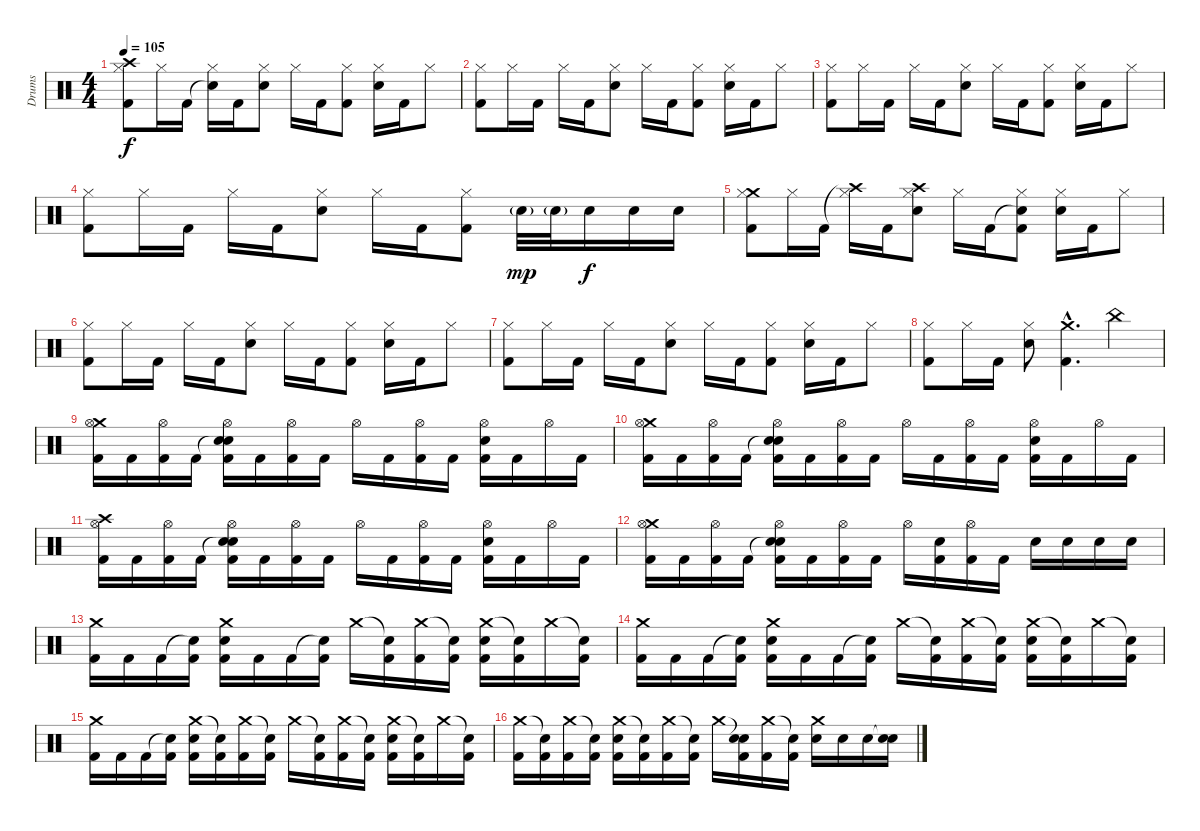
\track ("Drums" "Drums") {instrument percussion}
\staff {score}
\articulation defaults
\ts (4 4)
\tempo 105
\clef neutral
\ks c
("Crash high (hit)" "Hi-Hat (closed)" "Kick (hit) 2").8{dy f} "Hi-Hat (closed)".16 "Kick (hit) 2".16 ("Snare (hit)"{t} "Hi-Hat (closed)").16 "Kick (hit) 2".16 ("Hi-Hat (closed)" "Electric Snare (hit)").8 "Hi-Hat (closed)".16 "Kick (hit) 2".16 ("Hi-Hat (closed)" "Kick (hit) 2").8 ("Hi-Hat (closed)" "Electric Snare (hit)").16 "Kick (hit) 2".16 "Hi-Hat (closed)".8 |
("Hi-Hat (closed)" "Kick (hit) 2").8 "Hi-Hat (closed)".16 "Kick (hit) 2".16 "Hi-Hat (closed)".16 "Kick (hit) 2".16 ("Hi-Hat (closed)" "Electric Snare (hit)").8 "Hi-Hat (closed)".16 "Kick (hit) 2".16 ("Hi-Hat (closed)" "Kick (hit) 2").8 ("Hi-Hat (closed)" "Electric Snare (hit)").16 "Kick (hit) 2".16 "Hi-Hat (closed)".8 |
("Hi-Hat (closed)" "Kick (hit) 2").8 "Hi-Hat (closed)".16 "Kick (hit) 2".16 "Hi-Hat (closed)".16 "Kick (hit) 2".16 ("Hi-Hat (closed)" "Electric Snare (hit)").8 "Hi-Hat (closed)".16 "Kick (hit) 2".16 ("Hi-Hat (closed)" "Kick (hit) 2").8 ("Hi-Hat (closed)" "Electric Snare (hit)").16 "Kick (hit) 2".16 "Hi-Hat (closed)".8 |
("Hi-Hat (closed)" "Kick (hit) 2").8 "Hi-Hat (closed)".16 "Kick (hit) 2".16 "Hi-Hat (closed)".16 "Kick (hit) 2".16 ("Hi-Hat (closed)" "Electric Snare (hit)").8 "Hi-Hat (closed)".16 "Kick (hit) 2".16 ("Hi-Hat (closed)" "Kick (hit) 2").8 "Electric Snare (hit)"{g}.32{dy mp} "Electric Snare (hit)"{g}.32 "Electric Snare (hit)".16{dy f} "Electric Snare (hit)".16 "Electric Snare (hit)".16 |
("Crash medium (hit)" "Hi-Hat (closed)" "Kick (hit) 2").8 "Hi-Hat (closed)".16 "Kick (hit) 2".16 ("Crash high (hit)"{t} "Hi-Hat (closed)").16 "Kick (hit) 2".16 ("Crash high (hit)" "Hi-Hat (closed)" "Electric Snare (hit)").8 "Hi-Hat (closed)".16 "Kick (hit) 2".16 ("Snare (hit)"{t} "Hi-Hat (closed)" "Kick (hit) 2").8 ("Hi-Hat (closed)" "Electric Snare (hit)").16 "Kick (hit) 2".16 "Hi-Hat (closed)".8 |
("Hi-Hat (closed)" "Kick (hit) 2").8 "Hi-Hat (closed)".16 "Kick (hit) 2".16 "Hi-Hat (closed)".16 "Kick (hit) 2".16 ("Hi-Hat (closed)" "Electric Snare (hit)").8 "Hi-Hat (closed)".16 "Kick (hit) 2".16 ("Hi-Hat (closed)" "Kick (hit) 2").8 ("Hi-Hat (closed)" "Electric Snare (hit)").16 "Kick (hit) 2".16 "Hi-Hat (closed)".8 |
("Hi-Hat (closed)" "Kick (hit) 2").8 "Hi-Hat (closed)".16 "Kick (hit) 2".16 "Hi-Hat (closed)".16 "Kick (hit) 2".16 ("Hi-Hat (closed)" "Electric Snare (hit)").8 "Hi-Hat (closed)".16 "Kick (hit) 2".16 ("Hi-Hat (closed)" "Kick (hit) 2").8 ("Hi-Hat (closed)" "Electric Snare (hit)").16 "Kick (hit) 2".16 "Hi-Hat (closed)".8 |
("Hi-Hat (closed)" "Kick (hit) 2").8 "Hi-Hat (closed)".16 "Kick (hit) 2".16 ("Hi-Hat (closed)" "Electric Snare (hit)").8 ("Crash medium (hit)"{hac} "Kick (hit) 2"{hac}).4{d} "China (hit)".4 |
("Crash medium (hit)" "Hi-Hat (open)" "Kick (hit) 2").16 "Kick (hit) 2".16 ("Hi-Hat (open)" "Kick (hit) 2").16 "Kick (hit) 2".16 ("Snare (hit)"{t} "Hi-Hat (open)" "Electric Snare (hit)" "Kick (hit) 2").16 "Kick (hit) 2".16 ("Hi-Hat (open)" "Kick (hit) 2").16 "Kick (hit) 2".16 "Hi-Hat (open)".16 "Kick (hit) 2".16 ("Hi-Hat (open)" "Kick (hit) 2").16 "Kick (hit) 2".16 ("Hi-Hat (open)" "Electric Snare (hit)" "Kick (hit) 2").16 "Kick (hit) 2".16 "Hi-Hat (open)".16 "Kick (hit) 2".16 |
("Crash medium (hit)" "Hi-Hat (open)" "Kick (hit) 2").16 "Kick (hit) 2".16 ("Hi-Hat (open)" "Kick (hit) 2").16 "Kick (hit) 2".16 ("Snare (hit)"{t} "Hi-Hat (open)" "Electric Snare (hit)" "Kick (hit) 2").16 "Kick (hit) 2".16 ("Hi-Hat (open)" "Kick (hit) 2").16 "Kick (hit) 2".16 "Hi-Hat (open)".16 "Kick (hit) 2".16 ("Hi-Hat (open)" "Kick (hit) 2").16 "Kick (hit) 2".16 ("Hi-Hat (open)" "Electric Snare (hit)" "Kick (hit) 2").16 "Kick (hit) 2".16 "Hi-Hat (open)".16 "Kick (hit) 2".16 |
("Crash high (hit)" "Hi-Hat (open)" "Kick (hit) 2").16 "Kick (hit) 2".16 ("Hi-Hat (open)" "Kick (hit) 2").16 "Kick (hit) 2".16 ("Snare (hit)"{t} "Hi-Hat (open)" "Electric Snare (hit)" "Kick (hit) 2").16 "Kick (hit) 2".16 ("Hi-Hat (open)" "Kick (hit) 2").16 "Kick (hit) 2".16 "Hi-Hat (open)".16 "Kick (hit) 2".16 ("Hi-Hat (open)" "Kick (hit) 2").16 "Kick (hit) 2".16 ("Hi-Hat (open)" "Electric Snare (hit)" "Kick (hit) 2").16 "Kick (hit) 2".16 "Hi-Hat (open)".16 "Kick (hit) 2".16 |
("Crash medium (hit)" "Hi-Hat (open)" "Kick (hit) 2").16 "Kick (hit) 2".16 ("Hi-Hat (open)" "Kick (hit) 2").16 "Kick (hit) 2".16 ("Snare (hit)"{t} "Hi-Hat (open)" "Electric Snare (hit)" "Kick (hit) 2").16 "Kick (hit) 2".16 ("Hi-Hat (open)" "Kick (hit) 2").16 "Kick (hit) 2".16 "Hi-Hat (open)".16 ("Electric Snare (hit)" "Kick (hit) 2").16 ("Hi-Hat (open)" "Kick (hit) 2").16 "Kick (hit) 2".16 "Electric Snare (hit)".16 "Electric Snare (hit)".16 "Electric Snare (hit)".16 "Electric Snare (hit)".16 |
("Crash medium (hit)" "Kick (hit) 2").16 "Kick (hit) 2".16 "Kick (hit) 2".16 ("Snare (hit)"{t} "Kick (hit) 2").16 ("Crash medium (hit)" "Electric Snare (hit)" "Kick (hit) 2").16 "Kick (hit) 2".16 "Kick (hit) 2".16 ("Snare (hit)"{t} "Kick (hit) 2").16 "Crash medium (hit)".16 ("Snare (hit)"{t} "Kick (hit) 2").16 ("Crash medium (hit)" "Kick (hit) 2").16 ("Snare (hit)"{t} "Kick (hit) 2").16 ("Crash medium (hit)" "Electric Snare (hit)" "Kick (hit) 2").16 ("Snare (hit)"{t} "Kick (hit) 2").16 "Crash medium (hit)".16 ("Snare (hit)"{t} "Kick (hit) 2").16 |
("Crash medium (hit)" "Kick (hit) 2").16 "Kick (hit) 2".16 "Kick (hit) 2".16 ("Snare (hit)"{t} "Kick (hit) 2").16 ("Crash medium (hit)" "Electric Snare (hit)" "Kick (hit) 2").16 "Kick (hit) 2".16 "Kick (hit) 2".16 ("Snare (hit)"{t} "Kick (hit) 2").16 "Crash medium (hit)".16 ("Snare (hit)"{t} "Kick (hit) 2").16 ("Crash medium (hit)" "Kick (hit) 2").16 ("Snare (hit)"{t} "Kick (hit) 2").16 ("Crash medium (hit)" "Electric Snare (hit)" "Kick (hit) 2").16 ("Snare (hit)"{t} "Kick (hit) 2").16 "Crash medium (hit)".16 ("Snare (hit)"{t} "Kick (hit) 2").16 |
("Crash medium (hit)" "Kick (hit) 2").16 "Kick (hit) 2".16 "Kick (hit) 2".16 ("Snare (hit)"{t} "Kick (hit) 2").16 ("Crash medium (hit)" "Electric Snare (hit)" "Kick (hit) 2").16 ("Snare (hit)"{t} "Kick (hit) 2").16 ("Crash medium (hit)" "Kick (hit) 2").16 ("Snare (hit)"{t} "Kick (hit) 2").16 "Crash medium (hit)".16 ("Snare (hit)"{t} "Kick (hit) 2").16 ("Crash medium (hit)" "Kick (hit) 2").16 ("Snare (hit)"{t} "Kick (hit) 2").16 ("Crash medium (hit)" "Electric Snare (hit)" "Kick (hit) 2").16 ("Snare (hit)"{t} "Kick (hit) 2").16 "Crash medium (hit)".16 ("Snare (hit)"{t} "Kick (hit) 2").16 |
("Crash medium (hit)" "Kick (hit) 2").16 ("Snare (hit)"{t} "Kick (hit) 2").16 ("Crash medium (hit)" "Kick (hit) 2").16 ("Snare (hit)"{t} "Kick (hit) 2").16 ("Crash medium (hit)" "Electric Snare (hit)" "Kick (hit) 2").16 ("Snare (hit)"{t} "Kick (hit) 2").16 ("Crash medium (hit)" "Kick (hit) 2").16 ("Snare (hit)"{t} "Kick (hit) 2").16 "Crash medium (hit)".16 ("Snare (hit)"{t} "Electric Snare (hit)" "Kick (hit) 2").16 ("Crash medium (hit)" "Kick (hit) 2").16 ("Snare (hit)"{t} "Kick (hit) 2").16 ("Crash medium (hit)" "Electric Snare (hit)").16 "Electric Snare (hit)".16 "Electric Snare (hit)".16 ("Snare (hit)"{t} "Electric Snare (hit)").16
